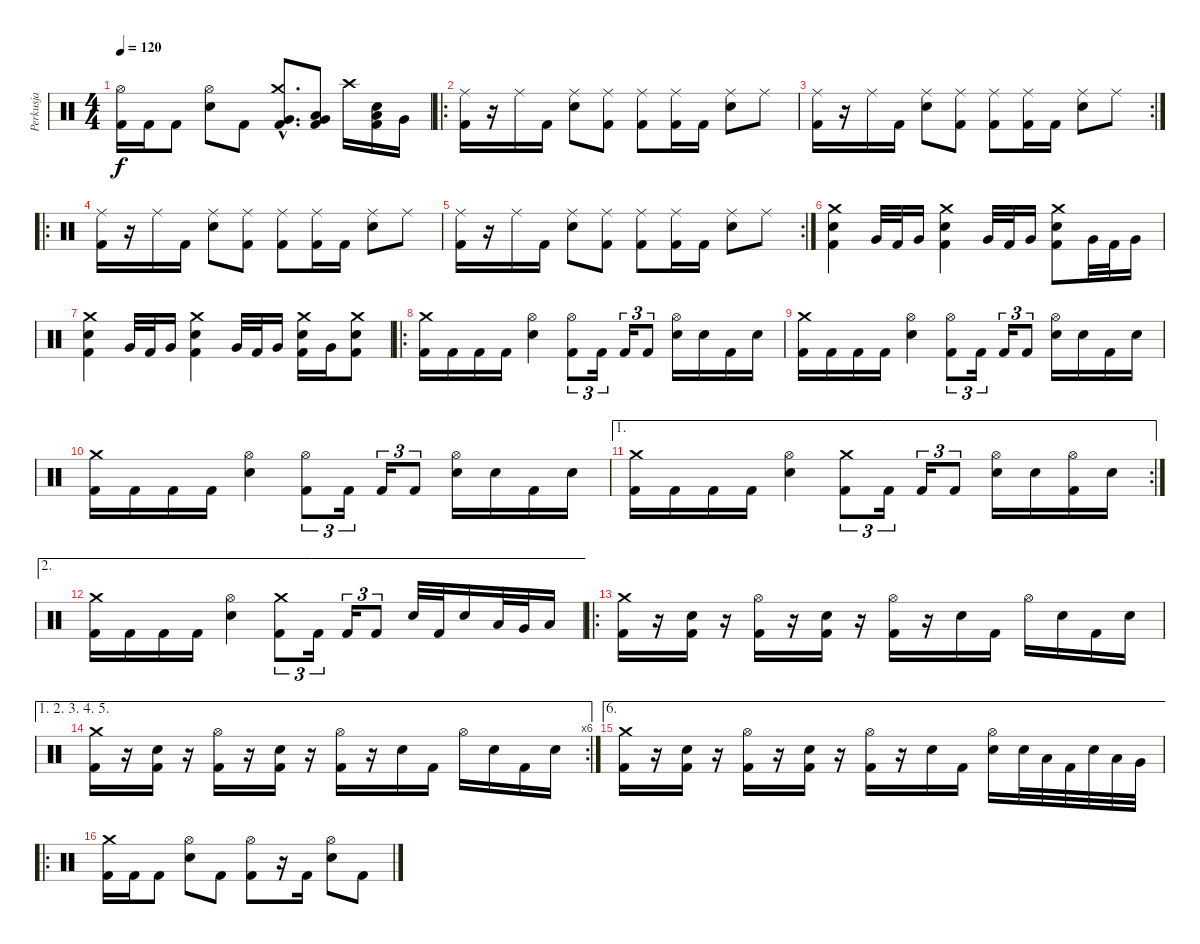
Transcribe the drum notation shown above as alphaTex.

\track ("Perkusja" "Perkusja") {instrument percussion}
\staff {score}
\articulation defaults
\ts (4 4)
\tempo 120
\clef neutral
\ks c
("Hi-Hat (open)" "Kick (hit) 2").16{dy f} "Kick (hit) 2".16 "Kick (hit) 2".8 ("Hi-Hat (open)" "Snare (hit) 2").8 "Kick (hit) 2".8 ("Crash medium (hit)"{hac} "Very Low Tom (hit)"{hac} "Kick (hit) 2"{hac}).8{d} ("Low Tom (hit)" "Very Low Tom (hit)" "Kick (hit) 2").8 "Crash high (hit)".16 ("Low Tom (hit)" "Snare (hit) 2" "Kick (hit) 2").16 "Very Low Tom (hit)".16 |
\ro
("Ride (middle)" "Kick (hit) 2").16 r.16 "Ride (middle)".16 "Kick (hit) 2".16 ("Ride (middle)" "Snare (hit) 2").8 ("Ride (middle)" "Kick (hit) 2").8 ("Ride (middle)" "Kick (hit) 2").8 ("Ride (middle)" "Kick (hit) 2").16 "Kick (hit) 2".16 ("Ride (middle)" "Snare (hit) 2").8 "Ride (middle)".8 |
\rc 2
("Ride (middle)" "Kick (hit) 2").16 r.16 "Ride (middle)".16 "Kick (hit) 2".16 ("Ride (middle)" "Snare (hit) 2").8 ("Ride (middle)" "Kick (hit) 2").8 ("Ride (middle)" "Kick (hit) 2").8 ("Ride (middle)" "Kick (hit) 2").16 "Kick (hit) 2".16 ("Ride (middle)" "Snare (hit) 2").8 "Ride (middle)".8 |
\ro
("Ride (middle)" "Kick (hit) 2").16 r.16 "Ride (middle)".16 "Kick (hit) 2".16 ("Ride (middle)" "Snare (hit) 2").8 ("Ride (middle)" "Kick (hit) 2").8 ("Ride (middle)" "Kick (hit) 2").8 ("Ride (middle)" "Kick (hit) 2").16 "Kick (hit) 2".16 ("Ride (middle)" "Snare (hit) 2").8 "Ride (middle)".8 |
\rc 2
("Ride (middle)" "Kick (hit) 2").16 r.16 "Ride (middle)".16 "Kick (hit) 2".16 ("Ride (middle)" "Snare (hit) 2").8 ("Ride (middle)" "Kick (hit) 2").8 ("Ride (middle)" "Kick (hit) 2").8 ("Ride (middle)" "Kick (hit) 2").16 "Kick (hit) 2".16 ("Ride (middle)" "Snare (hit) 2").8 "Ride (middle)".8 |
("Crash medium (hit)" "Snare (hit) 2" "Kick (hit) 2").4 "Very Low Tom (hit)".32 "Kick (hit) 2".32 "Very Low Tom (hit)".16 ("Crash medium (hit)" "Snare (hit) 2" "Kick (hit) 2").4 "Very Low Tom (hit)".32 "Kick (hit) 2".32 "Very Low Tom (hit)".16 ("Crash medium (hit)" "Snare (hit) 2" "Kick (hit) 2").8 "Very Low Tom (hit)".32 "Kick (hit) 2".32 "Very Low Tom (hit)".16 |
("Crash medium (hit)" "Snare (hit) 2" "Kick (hit) 2").4 "Very Low Tom (hit)".32 "Kick (hit) 2".32 "Very Low Tom (hit)".16 ("Crash medium (hit)" "Snare (hit) 2" "Kick (hit) 2").4 "Very Low Tom (hit)".32 "Kick (hit) 2".32 "Very Low Tom (hit)".16 ("Crash medium (hit)" "Snare (hit) 2" "Kick (hit) 2").16 "Very Low Tom (hit)".16 ("Crash medium (hit)" "Snare (hit) 2" "Kick (hit) 2").8 |
\ro
("Crash medium (hit)" "Kick (hit) 2").16 "Kick (hit) 2".16 "Kick (hit) 2".16 "Kick (hit) 2".16 ("Hi-Hat (open)" "Snare (hit) 2").4 ("Hi-Hat (open)" "Kick (hit) 2").8{tu (3 2)} "Kick (hit) 2".16{tu (3 2)} "Kick (hit) 2".16{tu (3 2)} "Kick (hit) 2".8{tu (3 2)} ("Hi-Hat (open)" "Snare (hit) 2").16 "Snare (hit) 2".16 "Kick (hit) 2".16 "Snare (hit) 2".16 |
("Crash medium (hit)" "Kick (hit) 2").16 "Kick (hit) 2".16 "Kick (hit) 2".16 "Kick (hit) 2".16 ("Hi-Hat (open)" "Snare (hit) 2").4 ("Hi-Hat (open)" "Kick (hit) 2").8{tu (3 2)} "Kick (hit) 2".16{tu (3 2)} "Kick (hit) 2".16{tu (3 2)} "Kick (hit) 2".8{tu (3 2)} ("Hi-Hat (open)" "Snare (hit) 2").16 "Snare (hit) 2".16 "Kick (hit) 2".16 "Snare (hit) 2".16 |
("Crash medium (hit)" "Kick (hit) 2").16 "Kick (hit) 2".16 "Kick (hit) 2".16 "Kick (hit) 2".16 ("Hi-Hat (open)" "Snare (hit) 2").4 ("Hi-Hat (open)" "Kick (hit) 2").8{tu (3 2)} "Kick (hit) 2".16{tu (3 2)} "Kick (hit) 2".16{tu (3 2)} "Kick (hit) 2".8{tu (3 2)} ("Hi-Hat (open)" "Snare (hit) 2").16 "Snare (hit) 2".16 "Kick (hit) 2".16 "Snare (hit) 2".16 |
\ae 1
\rc 2
("Crash medium (hit)" "Kick (hit) 2").16 "Kick (hit) 2".16 "Kick (hit) 2".16 "Kick (hit) 2".16 ("Hi-Hat (open)" "Snare (hit) 2").4 ("Crash medium (hit)" "Kick (hit) 2").8{tu (3 2)} "Kick (hit) 2".16{tu (3 2)} "Kick (hit) 2".16{tu (3 2)} "Kick (hit) 2".8{tu (3 2)} ("Hi-Hat (open)" "Snare (hit) 2").16 "Snare (hit) 2".16 ("Hi-Hat (open)" "Kick (hit) 2").16 "Snare (hit) 2".16 |
\ae 2
("Crash medium (hit)" "Kick (hit) 2").16 "Kick (hit) 2".16 "Kick (hit) 2".16 "Kick (hit) 2".16 ("Hi-Hat (open)" "Snare (hit) 2").4 ("Crash medium (hit)" "Kick (hit) 2").8{tu (3 2)} "Kick (hit) 2".16{tu (3 2)} "Kick (hit) 2".16{tu (3 2)} "Kick (hit) 2".8{tu (3 2)} "Snare (hit) 2".32 "Kick (hit) 2".32 "Snare (hit) 2".16 "Low Tom (hit)".32 "Very Low Tom (hit)".32 "Low Tom (hit)".16 |
\ro
("Crash medium (hit)" "Kick (hit) 2").16 r.16 ("Snare (hit) 2" "Kick (hit) 2").16 r.16 ("Hi-Hat (open)" "Kick (hit) 2").16 r.16 ("Snare (hit) 2" "Kick (hit) 2").16 r.16 ("Hi-Hat (open)" "Kick (hit) 2").16 r.16 "Snare (hit) 2".16 "Kick (hit) 2".16 "Hi-Hat (open)".16 "Snare (hit) 2".16 "Kick (hit) 2".16 "Snare (hit) 2".16 |
\ae (1 2 3 4 5)
\rc 6
("Crash medium (hit)" "Kick (hit) 2").16 r.16 ("Snare (hit) 2" "Kick (hit) 2").16 r.16 ("Hi-Hat (open)" "Kick (hit) 2").16 r.16 ("Snare (hit) 2" "Kick (hit) 2").16 r.16 ("Hi-Hat (open)" "Kick (hit) 2").16 r.16 "Snare (hit) 2".16 "Kick (hit) 2".16 "Hi-Hat (open)".16 "Snare (hit) 2".16 "Kick (hit) 2".16 "Snare (hit) 2".16 |
\ae 6
("Crash medium (hit)" "Kick (hit) 2").16 r.16 ("Snare (hit) 2" "Kick (hit) 2").16 r.16 ("Hi-Hat (open)" "Kick (hit) 2").16 r.16 ("Snare (hit) 2" "Kick (hit) 2").16 r.16 ("Hi-Hat (open)" "Kick (hit) 2").16 r.16 "Snare (hit) 2".16 "Kick (hit) 2".16 ("Hi-Hat (open)" "Snare (hit) 2").16 "Snare (hit) 2".32 "Low Tom (hit)".32 "Kick (hit) 2".32 "Snare (hit) 2".32 "Low Tom (hit)".32 "Very Low Tom (hit)".32 |
\ro
("Crash medium (hit)" "Kick (hit) 2").16 "Kick (hit) 2".16 "Kick (hit) 2".8 ("Hi-Hat (open)" "Snare (hit) 2").8 "Kick (hit) 2".8 ("Hi-Hat (open)" "Kick (hit) 2").8 r.16 "Kick (hit) 2".16 ("Hi-Hat (open)" "Snare (hit) 2").8 "Kick (hit) 2".8
